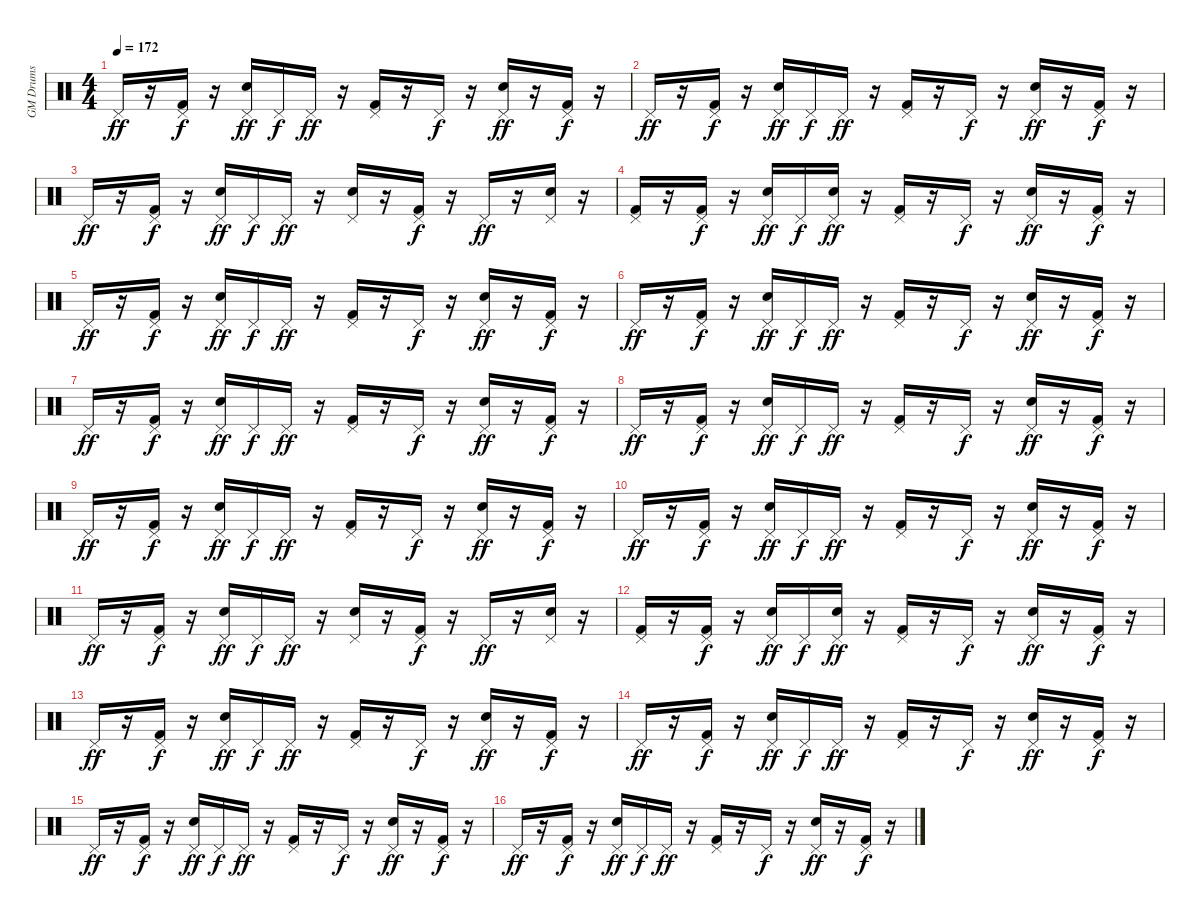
\track ("GM Drums" "GM Drums") {instrument percussion}
\staff {score}
\articulation defaults
\ts (4 4)
\tempo 172
\clef neutral
\ks c "Pedal Hi-Hat (hit)".16{dy ff}
r.16 ("Kick (hit) 2" "Pedal Hi-Hat (hit)").16{dy f} r.16 ("Snare (hit) 2" "Pedal Hi-Hat (hit)").16{dy ff} "Pedal Hi-Hat (hit)".16{dy f} "Pedal Hi-Hat (hit)".16{dy ff} r.16 ("Kick (hit) 2" "Pedal Hi-Hat (hit)").16 r.16 "Pedal Hi-Hat (hit)".16{dy f} r.16 ("Snare (hit) 2" "Pedal Hi-Hat (hit)").16{dy ff} r.16 ("Kick (hit) 2" "Pedal Hi-Hat (hit)").16{dy f} r.16 |
"Pedal Hi-Hat (hit)".16{dy ff} r.16 ("Kick (hit) 2" "Pedal Hi-Hat (hit)").16{dy f} r.16 ("Snare (hit) 2" "Pedal Hi-Hat (hit)").16{dy ff} "Pedal Hi-Hat (hit)".16{dy f} "Pedal Hi-Hat (hit)".16{dy ff} r.16 ("Kick (hit) 2" "Pedal Hi-Hat (hit)").16 r.16 "Pedal Hi-Hat (hit)".16{dy f} r.16 ("Snare (hit) 2" "Pedal Hi-Hat (hit)").16{dy ff} r.16 ("Kick (hit) 2" "Pedal Hi-Hat (hit)").16{dy f} r.16 |
"Pedal Hi-Hat (hit)".16{dy ff} r.16 ("Kick (hit) 2" "Pedal Hi-Hat (hit)").16{dy f} r.16 ("Snare (hit) 2" "Pedal Hi-Hat (hit)").16{dy ff} "Pedal Hi-Hat (hit)".16{dy f} "Pedal Hi-Hat (hit)".16{dy ff} r.16 ("Snare (hit) 2" "Pedal Hi-Hat (hit)").16 r.16 ("Kick (hit) 2" "Pedal Hi-Hat (hit)").16{dy f} r.16 "Pedal Hi-Hat (hit)".16{dy ff} r.16 ("Snare (hit) 2" "Pedal Hi-Hat (hit)").16 r.16 |
("Kick (hit) 2" "Pedal Hi-Hat (hit)").16 r.16 ("Kick (hit) 2" "Pedal Hi-Hat (hit)").16{dy f} r.16 ("Snare (hit) 2" "Pedal Hi-Hat (hit)").16{dy ff} "Pedal Hi-Hat (hit)".16{dy f} ("Snare (hit) 2" "Pedal Hi-Hat (hit)").16{dy ff} r.16 ("Kick (hit) 2" "Pedal Hi-Hat (hit)").16 r.16 "Pedal Hi-Hat (hit)".16{dy f} r.16 ("Snare (hit) 2" "Pedal Hi-Hat (hit)").16{dy ff} r.16 ("Kick (hit) 2" "Pedal Hi-Hat (hit)").16{dy f} r.16 |
"Pedal Hi-Hat (hit)".16{dy ff} r.16 ("Kick (hit) 2" "Pedal Hi-Hat (hit)").16{dy f} r.16 ("Snare (hit) 2" "Pedal Hi-Hat (hit)").16{dy ff} "Pedal Hi-Hat (hit)".16{dy f} "Pedal Hi-Hat (hit)".16{dy ff} r.16 ("Kick (hit) 2" "Pedal Hi-Hat (hit)").16 r.16 "Pedal Hi-Hat (hit)".16{dy f} r.16 ("Snare (hit) 2" "Pedal Hi-Hat (hit)").16{dy ff} r.16 ("Kick (hit) 2" "Pedal Hi-Hat (hit)").16{dy f} r.16 |
"Pedal Hi-Hat (hit)".16{dy ff} r.16 ("Kick (hit) 2" "Pedal Hi-Hat (hit)").16{dy f} r.16 ("Snare (hit) 2" "Pedal Hi-Hat (hit)").16{dy ff} "Pedal Hi-Hat (hit)".16{dy f} "Pedal Hi-Hat (hit)".16{dy ff} r.16 ("Kick (hit) 2" "Pedal Hi-Hat (hit)").16 r.16 "Pedal Hi-Hat (hit)".16{dy f} r.16 ("Snare (hit) 2" "Pedal Hi-Hat (hit)").16{dy ff} r.16 ("Kick (hit) 2" "Pedal Hi-Hat (hit)").16{dy f} r.16 |
"Pedal Hi-Hat (hit)".16{dy ff} r.16 ("Kick (hit) 2" "Pedal Hi-Hat (hit)").16{dy f} r.16 ("Snare (hit) 2" "Pedal Hi-Hat (hit)").16{dy ff} "Pedal Hi-Hat (hit)".16{dy f} "Pedal Hi-Hat (hit)".16{dy ff} r.16 ("Kick (hit) 2" "Pedal Hi-Hat (hit)").16 r.16 "Pedal Hi-Hat (hit)".16{dy f} r.16 ("Snare (hit) 2" "Pedal Hi-Hat (hit)").16{dy ff} r.16 ("Kick (hit) 2" "Pedal Hi-Hat (hit)").16{dy f} r.16 |
"Pedal Hi-Hat (hit)".16{dy ff} r.16 ("Kick (hit) 2" "Pedal Hi-Hat (hit)").16{dy f} r.16 ("Snare (hit) 2" "Pedal Hi-Hat (hit)").16{dy ff} "Pedal Hi-Hat (hit)".16{dy f} "Pedal Hi-Hat (hit)".16{dy ff} r.16 ("Kick (hit) 2" "Pedal Hi-Hat (hit)").16 r.16 "Pedal Hi-Hat (hit)".16{dy f} r.16 ("Snare (hit) 2" "Pedal Hi-Hat (hit)").16{dy ff} r.16 ("Kick (hit) 2" "Pedal Hi-Hat (hit)").16{dy f} r.16 |
"Pedal Hi-Hat (hit)".16{dy ff} r.16 ("Kick (hit) 2" "Pedal Hi-Hat (hit)").16{dy f} r.16 ("Snare (hit) 2" "Pedal Hi-Hat (hit)").16{dy ff} "Pedal Hi-Hat (hit)".16{dy f} "Pedal Hi-Hat (hit)".16{dy ff} r.16 ("Kick (hit) 2" "Pedal Hi-Hat (hit)").16 r.16 "Pedal Hi-Hat (hit)".16{dy f} r.16 ("Snare (hit) 2" "Pedal Hi-Hat (hit)").16{dy ff} r.16 ("Kick (hit) 2" "Pedal Hi-Hat (hit)").16{dy f} r.16 |
"Pedal Hi-Hat (hit)".16{dy ff} r.16 ("Kick (hit) 2" "Pedal Hi-Hat (hit)").16{dy f} r.16 ("Snare (hit) 2" "Pedal Hi-Hat (hit)").16{dy ff} "Pedal Hi-Hat (hit)".16{dy f} "Pedal Hi-Hat (hit)".16{dy ff} r.16 ("Kick (hit) 2" "Pedal Hi-Hat (hit)").16 r.16 "Pedal Hi-Hat (hit)".16{dy f} r.16 ("Snare (hit) 2" "Pedal Hi-Hat (hit)").16{dy ff} r.16 ("Kick (hit) 2" "Pedal Hi-Hat (hit)").16{dy f} r.16 |
"Pedal Hi-Hat (hit)".16{dy ff} r.16 ("Kick (hit) 2" "Pedal Hi-Hat (hit)").16{dy f} r.16 ("Snare (hit) 2" "Pedal Hi-Hat (hit)").16{dy ff} "Pedal Hi-Hat (hit)".16{dy f} "Pedal Hi-Hat (hit)".16{dy ff} r.16 ("Snare (hit) 2" "Pedal Hi-Hat (hit)").16 r.16 ("Kick (hit) 2" "Pedal Hi-Hat (hit)").16{dy f} r.16 "Pedal Hi-Hat (hit)".16{dy ff} r.16 ("Snare (hit) 2" "Pedal Hi-Hat (hit)").16 r.16 |
("Kick (hit) 2" "Pedal Hi-Hat (hit)").16 r.16 ("Kick (hit) 2" "Pedal Hi-Hat (hit)").16{dy f} r.16 ("Snare (hit) 2" "Pedal Hi-Hat (hit)").16{dy ff} "Pedal Hi-Hat (hit)".16{dy f} ("Snare (hit) 2" "Pedal Hi-Hat (hit)").16{dy ff} r.16 ("Kick (hit) 2" "Pedal Hi-Hat (hit)").16 r.16 "Pedal Hi-Hat (hit)".16{dy f} r.16 ("Snare (hit) 2" "Pedal Hi-Hat (hit)").16{dy ff} r.16 ("Kick (hit) 2" "Pedal Hi-Hat (hit)").16{dy f} r.16 |
"Pedal Hi-Hat (hit)".16{dy ff} r.16 ("Kick (hit) 2" "Pedal Hi-Hat (hit)").16{dy f} r.16 ("Snare (hit) 2" "Pedal Hi-Hat (hit)").16{dy ff} "Pedal Hi-Hat (hit)".16{dy f} "Pedal Hi-Hat (hit)".16{dy ff} r.16 ("Kick (hit) 2" "Pedal Hi-Hat (hit)").16 r.16 "Pedal Hi-Hat (hit)".16{dy f} r.16 ("Snare (hit) 2" "Pedal Hi-Hat (hit)").16{dy ff} r.16 ("Kick (hit) 2" "Pedal Hi-Hat (hit)").16{dy f} r.16 |
"Pedal Hi-Hat (hit)".16{dy ff} r.16 ("Kick (hit) 2" "Pedal Hi-Hat (hit)").16{dy f} r.16 ("Snare (hit) 2" "Pedal Hi-Hat (hit)").16{dy ff} "Pedal Hi-Hat (hit)".16{dy f} "Pedal Hi-Hat (hit)".16{dy ff} r.16 ("Kick (hit) 2" "Pedal Hi-Hat (hit)").16 r.16 "Pedal Hi-Hat (hit)".16{dy f} r.16 ("Snare (hit) 2" "Pedal Hi-Hat (hit)").16{dy ff} r.16 ("Kick (hit) 2" "Pedal Hi-Hat (hit)").16{dy f} r.16 |
"Pedal Hi-Hat (hit)".16{dy ff} r.16 ("Kick (hit) 2" "Pedal Hi-Hat (hit)").16{dy f} r.16 ("Snare (hit) 2" "Pedal Hi-Hat (hit)").16{dy ff} "Pedal Hi-Hat (hit)".16{dy f} "Pedal Hi-Hat (hit)".16{dy ff} r.16 ("Kick (hit) 2" "Pedal Hi-Hat (hit)").16 r.16 "Pedal Hi-Hat (hit)".16{dy f} r.16 ("Snare (hit) 2" "Pedal Hi-Hat (hit)").16{dy ff} r.16 ("Kick (hit) 2" "Pedal Hi-Hat (hit)").16{dy f} r.16 |
"Pedal Hi-Hat (hit)".16{dy ff} r.16 ("Kick (hit) 2" "Pedal Hi-Hat (hit)").16{dy f} r.16 ("Snare (hit) 2" "Pedal Hi-Hat (hit)").16{dy ff} "Pedal Hi-Hat (hit)".16{dy f} "Pedal Hi-Hat (hit)".16{dy ff} r.16 ("Kick (hit) 2" "Pedal Hi-Hat (hit)").16 r.16 "Pedal Hi-Hat (hit)".16{dy f} r.16 ("Snare (hit) 2" "Pedal Hi-Hat (hit)").16{dy ff} r.16 ("Kick (hit) 2" "Pedal Hi-Hat (hit)").16{dy f} r.16
